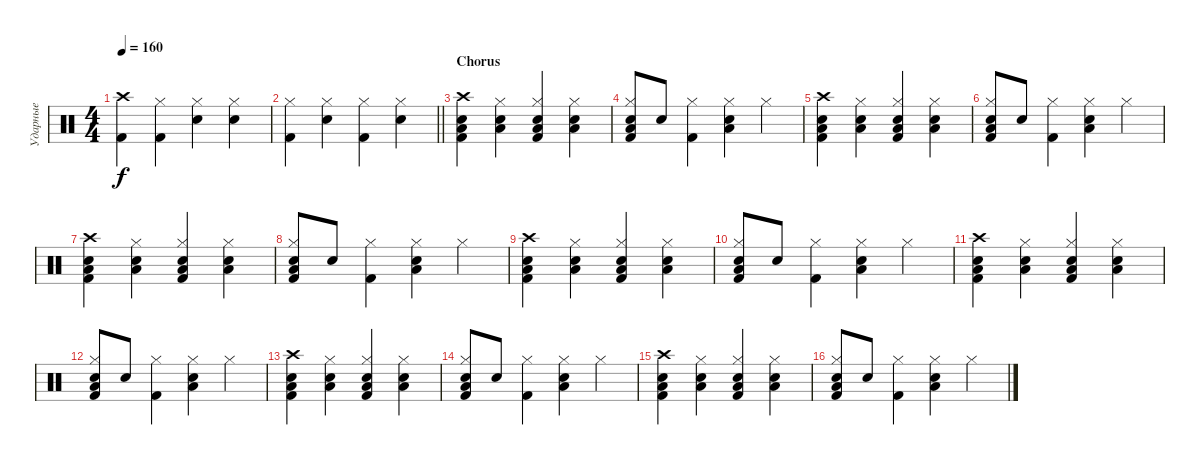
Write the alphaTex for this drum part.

\track ("Ударные" "Ударные") {instrument percussion}
\staff {score}
\articulation defaults
\ts (4 4)
\tempo 160
\clef neutral
\ks c
("Crash high (hit)" "Kick (hit) 2").4{dy f} ("Hi-Hat (closed)" "Kick (hit) 2").4 ("Hi-Hat (closed)" "Snare (hit) 2").4 ("Hi-Hat (closed)" "Snare (hit) 2").4 |
\barLineRight lightlight
("Hi-Hat (closed)" "Kick (hit) 2").4 ("Hi-Hat (closed)" "Snare (hit) 2").4 ("Hi-Hat (closed)" "Kick (hit) 2").4 ("Hi-Hat (closed)" "Snare (hit) 2").4 |
\section ("" "Chorus")
("Crash high (hit)" "Kick (hit) 2" "Snare (hit) 2" "Low Floor Tom (hit)").4 ("Hi-Hat (closed)" "Snare (hit) 2" "Low Floor Tom (hit)").4 ("Hi-Hat (closed)" "Kick (hit) 2" "Snare (hit) 2" "Low Floor Tom (hit)").4 ("Hi-Hat (closed)" "Snare (hit) 2" "Low Floor Tom (hit)").4 |
("Hi-Hat (closed)" "Kick (hit) 2" "Snare (hit) 2" "Low Floor Tom (hit)").8 "Snare (hit) 2".8 ("Hi-Hat (closed)" "Kick (hit) 2").4 ("Hi-Hat (closed)" "Snare (hit) 2" "Low Floor Tom (hit)").4 "Hi-Hat (closed)".4 |
("Crash high (hit)" "Kick (hit) 2" "Snare (hit) 2" "Low Floor Tom (hit)").4 ("Hi-Hat (closed)" "Snare (hit) 2" "Low Floor Tom (hit)").4 ("Hi-Hat (closed)" "Kick (hit) 2" "Snare (hit) 2" "Low Floor Tom (hit)").4 ("Hi-Hat (closed)" "Snare (hit) 2" "Low Floor Tom (hit)").4 |
("Hi-Hat (closed)" "Kick (hit) 2" "Snare (hit) 2" "Low Floor Tom (hit)").8 "Snare (hit) 2".8 ("Hi-Hat (closed)" "Kick (hit) 2").4 ("Hi-Hat (closed)" "Snare (hit) 2" "Low Floor Tom (hit)").4 "Hi-Hat (closed)".4 |
("Crash high (hit)" "Kick (hit) 2" "Snare (hit) 2" "Low Floor Tom (hit)").4 ("Hi-Hat (closed)" "Snare (hit) 2" "Low Floor Tom (hit)").4 ("Hi-Hat (closed)" "Kick (hit) 2" "Snare (hit) 2" "Low Floor Tom (hit)").4 ("Hi-Hat (closed)" "Snare (hit) 2" "Low Floor Tom (hit)").4 |
("Hi-Hat (closed)" "Kick (hit) 2" "Snare (hit) 2" "Low Floor Tom (hit)").8 "Snare (hit) 2".8 ("Hi-Hat (closed)" "Kick (hit) 2").4 ("Hi-Hat (closed)" "Snare (hit) 2" "Low Floor Tom (hit)").4 "Hi-Hat (closed)".4 |
("Crash high (hit)" "Kick (hit) 2" "Snare (hit) 2" "Low Floor Tom (hit)").4 ("Hi-Hat (closed)" "Snare (hit) 2" "Low Floor Tom (hit)").4 ("Hi-Hat (closed)" "Kick (hit) 2" "Snare (hit) 2" "Low Floor Tom (hit)").4 ("Hi-Hat (closed)" "Snare (hit) 2" "Low Floor Tom (hit)").4 |
("Hi-Hat (closed)" "Kick (hit) 2" "Snare (hit) 2" "Low Floor Tom (hit)").8 "Snare (hit) 2".8 ("Hi-Hat (closed)" "Kick (hit) 2").4 ("Hi-Hat (closed)" "Snare (hit) 2" "Low Floor Tom (hit)").4 "Hi-Hat (closed)".4 |
("Crash high (hit)" "Kick (hit) 2" "Snare (hit) 2" "Low Floor Tom (hit)").4 ("Hi-Hat (closed)" "Snare (hit) 2" "Low Floor Tom (hit)").4 ("Hi-Hat (closed)" "Kick (hit) 2" "Snare (hit) 2" "Low Floor Tom (hit)").4 ("Hi-Hat (closed)" "Snare (hit) 2" "Low Floor Tom (hit)").4 |
("Hi-Hat (closed)" "Kick (hit) 2" "Snare (hit) 2" "Low Floor Tom (hit)").8 "Snare (hit) 2".8 ("Hi-Hat (closed)" "Kick (hit) 2").4 ("Hi-Hat (closed)" "Snare (hit) 2" "Low Floor Tom (hit)").4 "Hi-Hat (closed)".4 |
("Crash high (hit)" "Kick (hit) 2" "Snare (hit) 2" "Low Floor Tom (hit)").4 ("Hi-Hat (closed)" "Snare (hit) 2" "Low Floor Tom (hit)").4 ("Hi-Hat (closed)" "Kick (hit) 2" "Snare (hit) 2" "Low Floor Tom (hit)").4 ("Hi-Hat (closed)" "Snare (hit) 2" "Low Floor Tom (hit)").4 |
("Hi-Hat (closed)" "Kick (hit) 2" "Snare (hit) 2" "Low Floor Tom (hit)").8 "Snare (hit) 2".8 ("Hi-Hat (closed)" "Kick (hit) 2").4 ("Hi-Hat (closed)" "Snare (hit) 2" "Low Floor Tom (hit)").4 "Hi-Hat (closed)".4 |
("Crash high (hit)" "Kick (hit) 2" "Snare (hit) 2" "Low Floor Tom (hit)").4 ("Hi-Hat (closed)" "Snare (hit) 2" "Low Floor Tom (hit)").4 ("Hi-Hat (closed)" "Kick (hit) 2" "Snare (hit) 2" "Low Floor Tom (hit)").4 ("Hi-Hat (closed)" "Snare (hit) 2" "Low Floor Tom (hit)").4 |
("Hi-Hat (closed)" "Kick (hit) 2" "Snare (hit) 2" "Low Floor Tom (hit)").8 "Snare (hit) 2".8 ("Hi-Hat (closed)" "Kick (hit) 2").4 ("Hi-Hat (closed)" "Snare (hit) 2" "Low Floor Tom (hit)").4 "Hi-Hat (closed)".4
